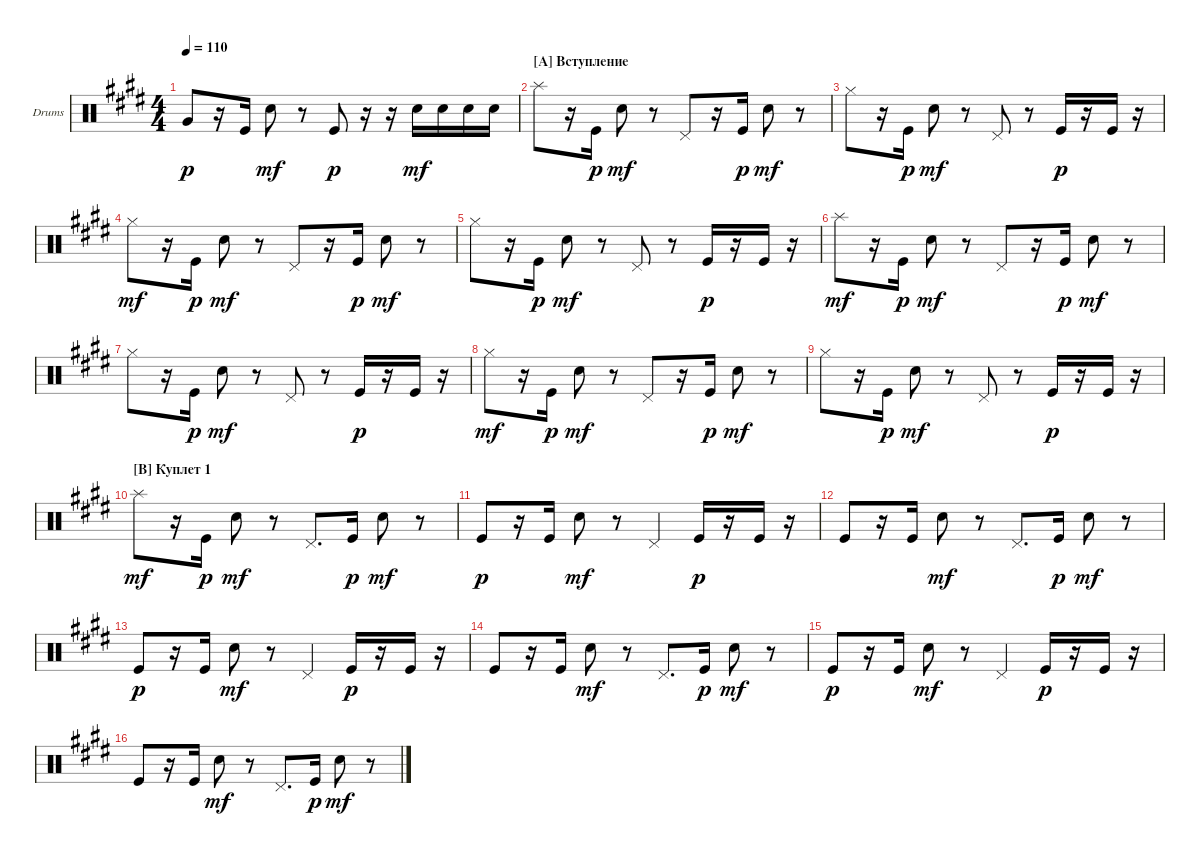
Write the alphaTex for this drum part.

\defaultSystemsLayout 4
\bracketExtendMode groupsimilarinstruments
\firstSystemTrackNameOrientation horizontal
\otherSystemsTrackNameOrientation horizontal
\track ("Drumkit" "Drums") {instrument percussion}
\staff {score}
\articulation defaults
\ts (4 4)
\tempo 110
\clef neutral
\ks c#minor "Very Low Tom (hit)".8{dy p}
r.16 "Kick (hit)".16 "Snare (hit) 2".8{dy mf} r.8 "Kick (hit)".8{dy p} r.16 r.16 "Snare (hit) 2".16{dy mf} "Snare (hit) 2".16 "Snare (hit) 2".16 "Snare (hit) 2".16 |
\section ("A" "Вступление")
"Splash (hit)".8 r.16 "Kick (hit)".16{dy p} "Snare (hit) 2".8{dy mf} r.8 "Pedal Hi-Hat (hit)".8 r.16 "Kick (hit)".16{dy p} "Snare (hit) 2".8{dy mf} r.8 |
"Hi-Hat (closed)".8 r.16 "Kick (hit)".16{dy p} "Snare (hit) 2".8{dy mf} r.8 "Pedal Hi-Hat (hit)".8 r.8 "Kick (hit)".16{dy p} r.16 "Kick (hit)".16 r.16 |
"Hi-Hat (closed)".8{dy mf} r.16 "Kick (hit)".16{dy p} "Snare (hit) 2".8{dy mf} r.8 "Pedal Hi-Hat (hit)".8 r.16 "Kick (hit)".16{dy p} "Snare (hit) 2".8{dy mf} r.8 |
"Hi-Hat (closed)".8 r.16 "Kick (hit)".16{dy p} "Snare (hit) 2".8{dy mf} r.8 "Pedal Hi-Hat (hit)".8 r.8 "Kick (hit)".16{dy p} r.16 "Kick (hit)".16 r.16 |
"Splash (hit)".8{dy mf} r.16 "Kick (hit)".16{dy p} "Snare (hit) 2".8{dy mf} r.8 "Pedal Hi-Hat (hit)".8 r.16 "Kick (hit)".16{dy p} "Snare (hit) 2".8{dy mf} r.8 |
"Hi-Hat (closed)".8 r.16 "Kick (hit)".16{dy p} "Snare (hit) 2".8{dy mf} r.8 "Pedal Hi-Hat (hit)".8 r.8 "Kick (hit)".16{dy p} r.16 "Kick (hit)".16 r.16 |
"Hi-Hat (closed)".8{dy mf} r.16 "Kick (hit)".16{dy p} "Snare (hit) 2".8{dy mf} r.8 "Pedal Hi-Hat (hit)".8 r.16 "Kick (hit)".16{dy p} "Snare (hit) 2".8{dy mf} r.8 |
"Hi-Hat (closed)".8 r.16 "Kick (hit)".16{dy p} "Snare (hit) 2".8{dy mf} r.8 "Pedal Hi-Hat (hit)".8 r.8 "Kick (hit)".16{dy p} r.16 "Kick (hit)".16 r.16 |
\section ("B" "Куплет 1")
"Splash (hit)".8{dy mf} r.16 "Kick (hit)".16{dy p} "Snare (hit) 2".8{dy mf} r.8 "Pedal Hi-Hat (hit)".8{d} "Kick (hit)".16{dy p} "Snare (hit) 2".8{dy mf} r.8 |
"Kick (hit)".8{dy p} r.16 "Kick (hit)".16 "Snare (hit) 2".8{dy mf} r.8 "Pedal Hi-Hat (hit)".4 "Kick (hit)".16{dy p} r.16 "Kick (hit)".16 r.16 |
"Kick (hit)".8 r.16 "Kick (hit)".16 "Snare (hit) 2".8{dy mf} r.8 "Pedal Hi-Hat (hit)".8{d} "Kick (hit)".16{dy p} "Snare (hit) 2".8{dy mf} r.8 |
"Kick (hit)".8{dy p} r.16 "Kick (hit)".16 "Snare (hit) 2".8{dy mf} r.8 "Pedal Hi-Hat (hit)".4 "Kick (hit)".16{dy p} r.16 "Kick (hit)".16 r.16 |
"Kick (hit)".8 r.16 "Kick (hit)".16 "Snare (hit) 2".8{dy mf} r.8 "Pedal Hi-Hat (hit)".8{d} "Kick (hit)".16{dy p} "Snare (hit) 2".8{dy mf} r.8 |
"Kick (hit)".8{dy p} r.16 "Kick (hit)".16 "Snare (hit) 2".8{dy mf} r.8 "Pedal Hi-Hat (hit)".4 "Kick (hit)".16{dy p} r.16 "Kick (hit)".16 r.16 |
"Kick (hit)".8 r.16 "Kick (hit)".16 "Snare (hit) 2".8{dy mf} r.8 "Pedal Hi-Hat (hit)".8{d} "Kick (hit)".16{dy p} "Snare (hit) 2".8{dy mf} r.8
